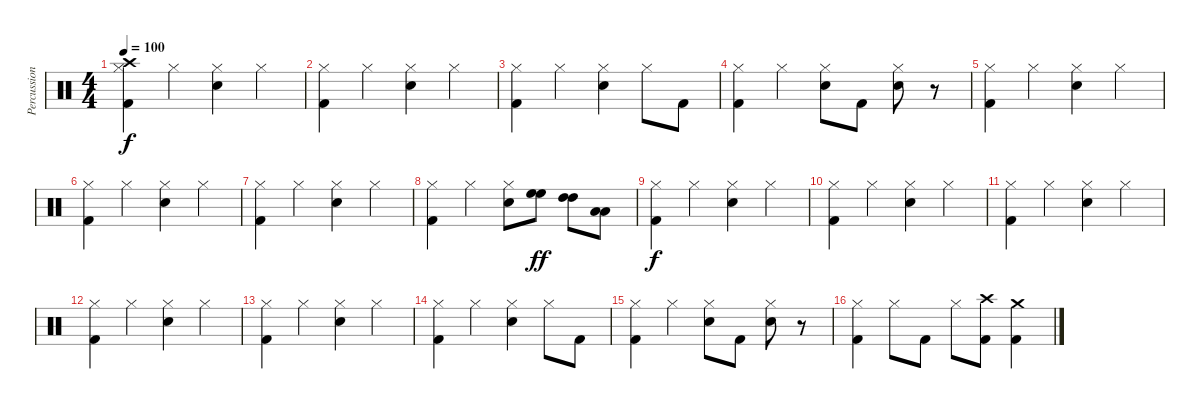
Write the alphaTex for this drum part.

\track ("Percussion" "Percussion") {instrument percussion}
\staff {score}
\articulation defaults
\ts (4 4)
\tempo 100
\clef neutral
\ks c
("Kick (hit) 2" "Hi-Hat (closed)" "Crash high (hit)").4{dy f} "Hi-Hat (closed)".4 ("Snare (hit) 2" "Hi-Hat (closed)").4 "Hi-Hat (closed)".4 |
("Kick (hit) 2" "Hi-Hat (closed)").4 "Hi-Hat (closed)".4 ("Snare (hit) 2" "Hi-Hat (closed)").4 "Hi-Hat (closed)".4 |
("Kick (hit) 2" "Hi-Hat (closed)").4 "Hi-Hat (closed)".4 ("Snare (hit) 2" "Hi-Hat (closed)").4 "Hi-Hat (closed)".8 "Kick (hit) 2".8 |
("Kick (hit) 2" "Hi-Hat (closed)").4 "Hi-Hat (closed)".4 ("Snare (hit) 2" "Hi-Hat (closed)").8 "Kick (hit) 2".8 ("Snare (hit) 2" "Hi-Hat (closed)").8 r.8 |
("Kick (hit) 2" "Hi-Hat (closed)").4 "Hi-Hat (closed)".4 ("Snare (hit) 2" "Hi-Hat (closed)").4 "Hi-Hat (closed)".4 |
("Kick (hit) 2" "Hi-Hat (closed)").4 "Hi-Hat (closed)".4 ("Snare (hit) 2" "Hi-Hat (closed)").4 "Hi-Hat (closed)".4 |
("Kick (hit) 2" "Hi-Hat (closed)").4 "Hi-Hat (closed)".4 ("Snare (hit) 2" "Hi-Hat (closed)").4 "Hi-Hat (closed)".4 |
("Kick (hit) 2" "Hi-Hat (closed)").4 "Hi-Hat (closed)".4 ("Snare (hit) 2" "Hi-Hat (closed)").8 ("High Floor Tom (hit)" "High Floor Tom (hit)").8{dy ff} ("High Tom (hit)" "High Tom (hit)").8 ("Low Tom (hit)" "Low Tom (hit)").8 |
("Kick (hit) 2" "Hi-Hat (closed)").4{dy f} "Hi-Hat (closed)".4 ("Snare (hit) 2" "Hi-Hat (closed)").4 "Hi-Hat (closed)".4 |
("Kick (hit) 2" "Hi-Hat (closed)").4 "Hi-Hat (closed)".4 ("Snare (hit) 2" "Hi-Hat (closed)").4 "Hi-Hat (closed)".4 |
("Kick (hit) 2" "Hi-Hat (closed)").4 "Hi-Hat (closed)".4 ("Snare (hit) 2" "Hi-Hat (closed)").4 "Hi-Hat (closed)".4 |
("Kick (hit) 2" "Hi-Hat (closed)").4 "Hi-Hat (closed)".4 ("Snare (hit) 2" "Hi-Hat (closed)").4 "Hi-Hat (closed)".4 |
("Kick (hit) 2" "Hi-Hat (closed)").4 "Hi-Hat (closed)".4 ("Snare (hit) 2" "Hi-Hat (closed)").4 "Hi-Hat (closed)".4 |
("Kick (hit) 2" "Hi-Hat (closed)").4 "Hi-Hat (closed)".4 ("Snare (hit) 2" "Hi-Hat (closed)").4 "Hi-Hat (closed)".8 "Kick (hit) 2".8 |
("Kick (hit) 2" "Hi-Hat (closed)").4 "Hi-Hat (closed)".4 ("Snare (hit) 2" "Hi-Hat (closed)").8 "Kick (hit) 2".8 ("Snare (hit) 2" "Hi-Hat (closed)").8 r.8 |
("Kick (hit) 2" "Hi-Hat (closed)").4 "Hi-Hat (closed)".8 "Kick (hit) 2".8 "Hi-Hat (closed)".8 ("Kick (hit) 2" "Crash high (hit)").8 ("Kick (hit) 2" "Crash medium (hit)").4
